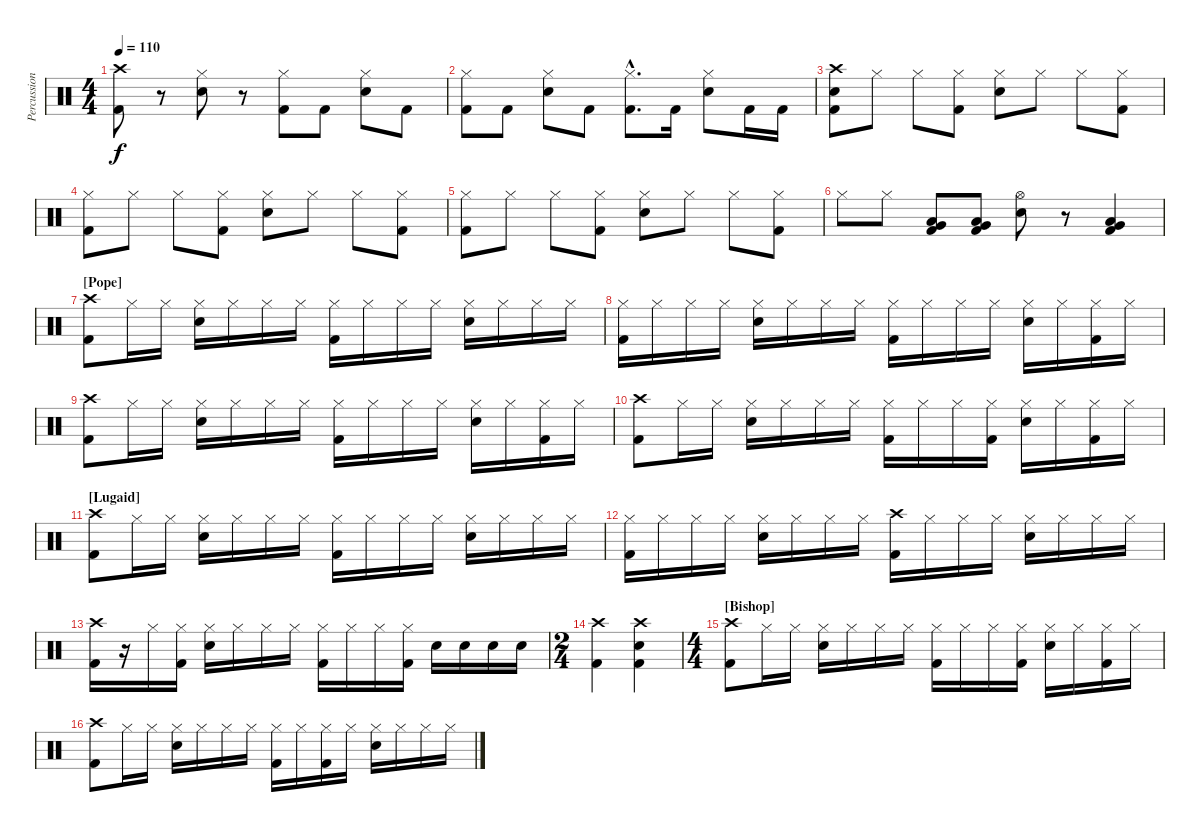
\track ("Percussions" "Percussion") {instrument percussion}
\staff {score}
\articulation defaults
\ts (4 4)
\tempo 110
\clef neutral
\ks c
("Crash high (hit)" "Kick (hit) 2").8{dy f} r.8 ("Hi-Hat (closed)" "Electric Snare (hit)").8 r.8 ("Hi-Hat (closed)" "Kick (hit) 2").8 "Kick (hit) 2".8 ("Hi-Hat (closed)" "Electric Snare (hit)").8 "Kick (hit) 2".8 |
("Hi-Hat (closed)" "Kick (hit) 2").8 "Kick (hit) 2".8 ("Hi-Hat (closed)" "Electric Snare (hit)").8 "Kick (hit) 2".8 ("Hi-Hat (closed)"{hac} "Kick (hit) 2"{hac}).8{d} "Kick (hit) 2".16 ("Hi-Hat (closed)" "Electric Snare (hit)").8 "Kick (hit) 2".16 "Kick (hit) 2".16 |
("Crash high (hit)" "Electric Snare (hit)" "Kick (hit) 2").8 "Hi-Hat (closed)".8 "Hi-Hat (closed)".8 ("Hi-Hat (closed)" "Kick (hit) 2").8 ("Hi-Hat (closed)" "Electric Snare (hit)").8 "Hi-Hat (closed)".8 "Hi-Hat (closed)".8 ("Hi-Hat (closed)" "Kick (hit) 2").8 |
("Hi-Hat (closed)" "Kick (hit) 2").8 "Hi-Hat (closed)".8 "Hi-Hat (closed)".8 ("Hi-Hat (closed)" "Kick (hit) 2").8 ("Hi-Hat (closed)" "Electric Snare (hit)").8 "Hi-Hat (closed)".8 "Hi-Hat (closed)".8 ("Hi-Hat (closed)" "Kick (hit) 2").8 |
("Hi-Hat (closed)" "Kick (hit) 2").8 "Hi-Hat (closed)".8 "Hi-Hat (closed)".8 ("Hi-Hat (closed)" "Kick (hit) 2").8 ("Hi-Hat (closed)" "Electric Snare (hit)").8 "Hi-Hat (closed)".8 "Hi-Hat (closed)".8 ("Hi-Hat (closed)" "Kick (hit) 2").8 |
"Hi-Hat (closed)".8 "Hi-Hat (closed)".8 ("Low Tom (hit)" "Very Low Tom (hit)" "Kick (hit) 2").8 ("Low Tom (hit)" "Very Low Tom (hit)" "Kick (hit) 2").8 ("Hi-Hat (open)" "Electric Snare (hit)").8 r.8 ("Very Low Tom (hit)" "Low Tom (hit)" "Kick (hit) 2").4 |
\section ("" "[Pope]")
("Crash high (hit)" "Kick (hit) 2").8 "Hi-Hat (closed)".16 "Hi-Hat (closed)".16 ("Hi-Hat (closed)" "Electric Snare (hit)").16 "Hi-Hat (closed)".16 "Hi-Hat (closed)".16 "Hi-Hat (closed)".16 ("Hi-Hat (closed)" "Kick (hit) 2").16 "Hi-Hat (closed)".16 "Hi-Hat (closed)".16 "Hi-Hat (closed)".16 ("Hi-Hat (closed)" "Electric Snare (hit)").16 "Hi-Hat (closed)".16 "Hi-Hat (closed)".16 "Hi-Hat (closed)".16 |
("Hi-Hat (closed)" "Kick (hit) 2").16 "Hi-Hat (closed)".16 "Hi-Hat (closed)".16 "Hi-Hat (closed)".16 ("Hi-Hat (closed)" "Electric Snare (hit)").16 "Hi-Hat (closed)".16 "Hi-Hat (closed)".16 "Hi-Hat (closed)".16 ("Hi-Hat (closed)" "Kick (hit) 2").16 "Hi-Hat (closed)".16 "Hi-Hat (closed)".16 "Hi-Hat (closed)".16 ("Hi-Hat (closed)" "Electric Snare (hit)").16 "Hi-Hat (closed)".16 ("Hi-Hat (closed)" "Kick (hit) 2").16 "Hi-Hat (closed)".16 |
("Crash high (hit)" "Kick (hit) 2").8 "Hi-Hat (closed)".16 "Hi-Hat (closed)".16 ("Hi-Hat (closed)" "Electric Snare (hit)").16 "Hi-Hat (closed)".16 "Hi-Hat (closed)".16 "Hi-Hat (closed)".16 ("Hi-Hat (closed)" "Kick (hit) 2").16 "Hi-Hat (closed)".16 "Hi-Hat (closed)".16 "Hi-Hat (closed)".16 ("Hi-Hat (closed)" "Electric Snare (hit)").16 "Hi-Hat (closed)".16 ("Hi-Hat (closed)" "Kick (hit) 2").16 "Hi-Hat (closed)".16 |
("Crash high (hit)" "Kick (hit) 2").8 "Hi-Hat (closed)".16 "Hi-Hat (closed)".16 ("Hi-Hat (closed)" "Electric Snare (hit)").16 "Hi-Hat (closed)".16 "Hi-Hat (closed)".16 "Hi-Hat (closed)".16 ("Hi-Hat (closed)" "Kick (hit) 2").16 "Hi-Hat (closed)".16 "Hi-Hat (closed)".16 ("Hi-Hat (closed)" "Kick (hit) 2").16 ("Hi-Hat (closed)" "Electric Snare (hit)").16 "Hi-Hat (closed)".16 ("Hi-Hat (closed)" "Kick (hit) 2").16 "Hi-Hat (closed)".16 |
\section ("" "[Lugaid]")
("Crash high (hit)" "Kick (hit) 2").8 "Hi-Hat (closed)".16 "Hi-Hat (closed)".16 ("Hi-Hat (closed)" "Electric Snare (hit)").16 "Hi-Hat (closed)".16 "Hi-Hat (closed)".16 "Hi-Hat (closed)".16 ("Hi-Hat (closed)" "Kick (hit) 2").16 "Hi-Hat (closed)".16 "Hi-Hat (closed)".16 "Hi-Hat (closed)".16 ("Hi-Hat (closed)" "Electric Snare (hit)").16 "Hi-Hat (closed)".16 "Hi-Hat (closed)".16 "Hi-Hat (closed)".16 |
("Hi-Hat (closed)" "Kick (hit) 2").16 "Hi-Hat (closed)".16 "Hi-Hat (closed)".16 "Hi-Hat (closed)".16 ("Hi-Hat (closed)" "Electric Snare (hit)").16 "Hi-Hat (closed)".16 "Hi-Hat (closed)".16 "Hi-Hat (closed)".16 ("Crash high (hit)" "Kick (hit) 2").16 "Hi-Hat (closed)".16 "Hi-Hat (closed)".16 "Hi-Hat (closed)".16 ("Hi-Hat (closed)" "Electric Snare (hit)").16 "Hi-Hat (closed)".16 "Hi-Hat (closed)".16 "Hi-Hat (closed)".16 |
("Crash high (hit)" "Kick (hit) 2").16 r.16 "Hi-Hat (closed)".16 ("Hi-Hat (closed)" "Kick (hit) 2").16 ("Hi-Hat (closed)" "Electric Snare (hit)").16 "Hi-Hat (closed)".16 "Hi-Hat (closed)".16 "Hi-Hat (closed)".16 ("Hi-Hat (closed)" "Kick (hit) 2").16 "Hi-Hat (closed)".16 "Hi-Hat (closed)".16 ("Hi-Hat (closed)" "Kick (hit) 2").16 "Electric Snare (hit)".16 "Electric Snare (hit)".16 "Electric Snare (hit)".16 "Electric Snare (hit)".16 |
\ts (2 4)
("Crash high (hit)" "Kick (hit) 2").4 ("Crash high (hit)" "Electric Snare (hit)" "Kick (hit) 2").4 |
\ts (4 4)
\section ("" "[Bishop]")
("Crash high (hit)" "Kick (hit) 2").8 "Hi-Hat (closed)".16 "Hi-Hat (closed)".16 ("Hi-Hat (closed)" "Electric Snare (hit)").16 "Hi-Hat (closed)".16 "Hi-Hat (closed)".16 "Hi-Hat (closed)".16 ("Hi-Hat (closed)" "Kick (hit) 2").16 "Hi-Hat (closed)".16 "Hi-Hat (closed)".16 ("Hi-Hat (closed)" "Kick (hit) 2").16 ("Hi-Hat (closed)" "Electric Snare (hit)").16 "Hi-Hat (closed)".16 ("Hi-Hat (closed)" "Kick (hit) 2").16 "Hi-Hat (closed)".16 |
("Crash high (hit)" "Kick (hit) 2").8 "Hi-Hat (closed)".16 "Hi-Hat (closed)".16 ("Hi-Hat (closed)" "Electric Snare (hit)").16 "Hi-Hat (closed)".16 "Hi-Hat (closed)".16 "Hi-Hat (closed)".16 ("Hi-Hat (closed)" "Kick (hit) 2").16 "Hi-Hat (closed)".16 ("Hi-Hat (closed)" "Kick (hit) 2").16 "Hi-Hat (closed)".16 ("Hi-Hat (closed)" "Electric Snare (hit)").16 "Hi-Hat (closed)".16 "Hi-Hat (closed)".16 "Hi-Hat (closed)".16
